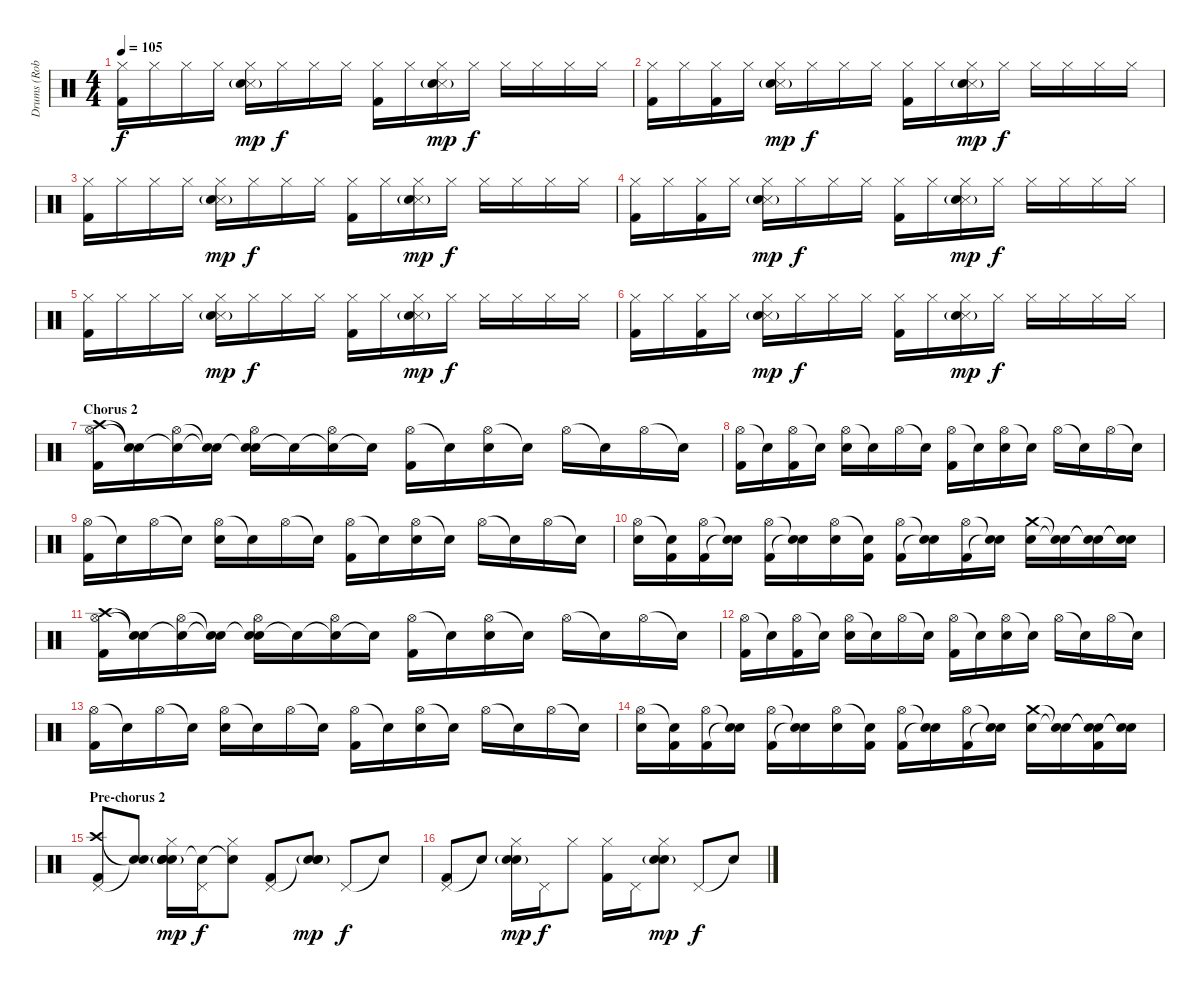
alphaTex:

\track ("Drums (Rob Bourdon)" "Drums (Rob") {instrument percussion}
\staff {score}
\articulation defaults
\ts (4 4)
\tempo 105
\clef neutral
\ks c
("Hi-Hat (closed)" "Kick (hit) 2").16{dy f} "Hi-Hat (closed)".16 "Hi-Hat (closed)".16 "Hi-Hat (closed)".16 ("Hi-Hat (closed)" "Snare (side stick) 3" "Electric Snare (hit)"{g}).16{dy mp} "Hi-Hat (closed)".16{dy f} "Hi-Hat (closed)".16 "Hi-Hat (closed)".16 ("Hi-Hat (closed)" "Kick (hit) 2").16 "Hi-Hat (closed)".16 ("Hi-Hat (closed)" "Snare (side stick) 3" "Electric Snare (hit)"{g}).16{dy mp} "Hi-Hat (closed)".16{dy f} "Hi-Hat (closed)".16 "Hi-Hat (closed)".16 "Hi-Hat (closed)".16 "Hi-Hat (closed)".16 |
("Hi-Hat (closed)" "Kick (hit) 2").16 "Hi-Hat (closed)".16 ("Hi-Hat (closed)" "Kick (hit) 2").16 "Hi-Hat (closed)".16 ("Hi-Hat (closed)" "Snare (side stick) 3" "Electric Snare (hit)"{g}).16{dy mp} "Hi-Hat (closed)".16{dy f} "Hi-Hat (closed)".16 "Hi-Hat (closed)".16 ("Hi-Hat (closed)" "Kick (hit) 2").16 "Hi-Hat (closed)".16 ("Hi-Hat (closed)" "Snare (side stick) 3" "Electric Snare (hit)"{g}).16{dy mp} "Hi-Hat (closed)".16{dy f} "Hi-Hat (closed)".16 "Hi-Hat (closed)".16 "Hi-Hat (closed)".16 "Hi-Hat (closed)".16 |
("Hi-Hat (closed)" "Kick (hit) 2").16 "Hi-Hat (closed)".16 "Hi-Hat (closed)".16 "Hi-Hat (closed)".16 ("Hi-Hat (closed)" "Snare (side stick) 3" "Electric Snare (hit)"{g}).16{dy mp} "Hi-Hat (closed)".16{dy f} "Hi-Hat (closed)".16 "Hi-Hat (closed)".16 ("Hi-Hat (closed)" "Kick (hit) 2").16 "Hi-Hat (closed)".16 ("Hi-Hat (closed)" "Snare (side stick) 3" "Electric Snare (hit)"{g}).16{dy mp} "Hi-Hat (closed)".16{dy f} "Hi-Hat (closed)".16 "Hi-Hat (closed)".16 "Hi-Hat (closed)".16 "Hi-Hat (closed)".16 |
("Hi-Hat (closed)" "Kick (hit) 2").16 "Hi-Hat (closed)".16 ("Hi-Hat (closed)" "Kick (hit) 2").16 "Hi-Hat (closed)".16 ("Hi-Hat (closed)" "Snare (side stick) 3" "Electric Snare (hit)"{g}).16{dy mp} "Hi-Hat (closed)".16{dy f} "Hi-Hat (closed)".16 "Hi-Hat (closed)".16 ("Hi-Hat (closed)" "Kick (hit) 2").16 "Hi-Hat (closed)".16 ("Hi-Hat (closed)" "Snare (side stick) 3" "Electric Snare (hit)"{g}).16{dy mp} "Hi-Hat (closed)".16{dy f} "Hi-Hat (closed)".16 "Hi-Hat (closed)".16 "Hi-Hat (closed)".16 "Hi-Hat (closed)".16 |
("Hi-Hat (closed)" "Kick (hit) 2").16 "Hi-Hat (closed)".16 "Hi-Hat (closed)".16 "Hi-Hat (closed)".16 ("Hi-Hat (closed)" "Snare (side stick) 3" "Electric Snare (hit)"{g}).16{dy mp} "Hi-Hat (closed)".16{dy f} "Hi-Hat (closed)".16 "Hi-Hat (closed)".16 ("Hi-Hat (closed)" "Kick (hit) 2").16 "Hi-Hat (closed)".16 ("Hi-Hat (closed)" "Snare (side stick) 3" "Electric Snare (hit)"{g}).16{dy mp} "Hi-Hat (closed)".16{dy f} "Hi-Hat (closed)".16 "Hi-Hat (closed)".16 "Hi-Hat (closed)".16 "Hi-Hat (closed)".16 |
("Hi-Hat (closed)" "Kick (hit) 2").16 "Hi-Hat (closed)".16 ("Hi-Hat (closed)" "Kick (hit) 2").16 "Hi-Hat (closed)".16 ("Hi-Hat (closed)" "Snare (side stick) 3" "Electric Snare (hit)"{g}).16{dy mp} "Hi-Hat (closed)".16{dy f} "Hi-Hat (closed)".16 "Hi-Hat (closed)".16 ("Hi-Hat (closed)" "Kick (hit) 2").16 "Hi-Hat (closed)".16 ("Hi-Hat (closed)" "Snare (side stick) 3" "Electric Snare (hit)"{g}).16{dy mp} "Hi-Hat (closed)".16{dy f} "Hi-Hat (closed)".16 "Hi-Hat (closed)".16 "Hi-Hat (closed)".16 "Hi-Hat (closed)".16 |
\section ("" "Chorus 2")
("Crash high (hit)" "Hi-Hat (open)" "Kick (hit) 2").16 ("Snare (hit)"{t} "Snare (hit)"{t}).16 ("Snare (hit)"{t} "Hi-Hat (open)").16 ("Snare (hit)"{t} "Snare (hit)"{t}).16 ("Snare (hit)"{t} "Hi-Hat (open)" "Electric Snare (hit)").16 "Snare (hit)"{t}.16 ("Snare (hit)"{t} "Hi-Hat (open)").16 "Snare (hit)"{t}.16 ("Hi-Hat (open)" "Kick (hit) 2").16 "Snare (hit)"{t}.16 ("Hi-Hat (open)" "Electric Snare (hit)").16 "Snare (hit)"{t}.16 "Hi-Hat (open)".16 "Snare (hit)"{t}.16 "Hi-Hat (open)".16 "Snare (hit)"{t}.16 |
("Hi-Hat (open)" "Kick (hit) 2").16 "Snare (hit)"{t}.16 ("Hi-Hat (open)" "Kick (hit) 2").16 "Snare (hit)"{t}.16 ("Hi-Hat (open)" "Electric Snare (hit)").16 "Snare (hit)"{t}.16 "Hi-Hat (open)".16 "Snare (hit)"{t}.16 ("Hi-Hat (open)" "Kick (hit) 2").16 "Snare (hit)"{t}.16 ("Hi-Hat (open)" "Electric Snare (hit)").16 "Snare (hit)"{t}.16 "Hi-Hat (open)".16 "Snare (hit)"{t}.16 "Hi-Hat (open)".16 "Snare (hit)"{t}.16 |
("Hi-Hat (open)" "Kick (hit) 2").16 "Snare (hit)"{t}.16 "Hi-Hat (open)".16 "Snare (hit)"{t}.16 ("Hi-Hat (open)" "Electric Snare (hit)").16 "Snare (hit)"{t}.16 "Hi-Hat (open)".16 "Snare (hit)"{t}.16 ("Hi-Hat (open)" "Kick (hit) 2").16 "Snare (hit)"{t}.16 ("Hi-Hat (open)" "Electric Snare (hit)").16 "Snare (hit)"{t}.16 "Hi-Hat (open)".16 "Snare (hit)"{t}.16 "Hi-Hat (open)".16 "Snare (hit)"{t}.16 |
("Hi-Hat (open)" "Electric Snare (hit)").16 ("Snare (hit)"{t} "Kick (hit) 2").16 ("Hi-Hat (open)" "Kick (hit) 2").16 ("Snare (hit)"{t} "Snare (hit)"{t}).16 ("Hi-Hat (open)" "Kick (hit) 2").16 ("Snare (hit)"{t} "Snare (hit)"{t}).16 ("Hi-Hat (open)" "Electric Snare (hit)").16 ("Snare (hit)"{t} "Kick (hit) 2").16 ("Hi-Hat (open)" "Kick (hit) 2").16 ("Snare (hit)"{t} "Snare (hit)"{t}).16 ("Hi-Hat (open)" "Kick (hit) 2").16 ("Snare (hit)"{t} "Snare (hit)"{t}).16 ("Crash medium (hit)" "Electric Snare (hit)").16 ("Snare (hit)"{t} "Snare (hit)"{t}).16 ("Snare (hit)"{t} "Snare (hit)"{t}).16 ("Snare (hit)"{t} "Snare (hit)"{t}).16 |
("Crash high (hit)" "Hi-Hat (open)" "Kick (hit) 2").16 ("Snare (hit)"{t} "Snare (hit)"{t}).16 ("Snare (hit)"{t} "Hi-Hat (open)").16 ("Snare (hit)"{t} "Snare (hit)"{t}).16 ("Snare (hit)"{t} "Hi-Hat (open)" "Electric Snare (hit)").16 "Snare (hit)"{t}.16 ("Snare (hit)"{t} "Hi-Hat (open)").16 "Snare (hit)"{t}.16 ("Hi-Hat (open)" "Kick (hit) 2").16 "Snare (hit)"{t}.16 ("Hi-Hat (open)" "Electric Snare (hit)").16 "Snare (hit)"{t}.16 "Hi-Hat (open)".16 "Snare (hit)"{t}.16 "Hi-Hat (open)".16 "Snare (hit)"{t}.16 |
("Hi-Hat (open)" "Kick (hit) 2").16 "Snare (hit)"{t}.16 ("Hi-Hat (open)" "Kick (hit) 2").16 "Snare (hit)"{t}.16 ("Hi-Hat (open)" "Electric Snare (hit)").16 "Snare (hit)"{t}.16 "Hi-Hat (open)".16 "Snare (hit)"{t}.16 ("Hi-Hat (open)" "Kick (hit) 2").16 "Snare (hit)"{t}.16 ("Hi-Hat (open)" "Electric Snare (hit)").16 "Snare (hit)"{t}.16 "Hi-Hat (open)".16 "Snare (hit)"{t}.16 "Hi-Hat (open)".16 "Snare (hit)"{t}.16 |
("Hi-Hat (open)" "Kick (hit) 2").16 "Snare (hit)"{t}.16 "Hi-Hat (open)".16 "Snare (hit)"{t}.16 ("Hi-Hat (open)" "Electric Snare (hit)").16 "Snare (hit)"{t}.16 "Hi-Hat (open)".16 "Snare (hit)"{t}.16 ("Hi-Hat (open)" "Kick (hit) 2").16 "Snare (hit)"{t}.16 ("Hi-Hat (open)" "Electric Snare (hit)").16 "Snare (hit)"{t}.16 "Hi-Hat (open)".16 "Snare (hit)"{t}.16 "Hi-Hat (open)".16 "Snare (hit)"{t}.16 |
("Hi-Hat (open)" "Electric Snare (hit)").16 ("Snare (hit)"{t} "Kick (hit) 2").16 ("Hi-Hat (open)" "Kick (hit) 2").16 ("Snare (hit)"{t} "Snare (hit)"{t}).16 ("Hi-Hat (open)" "Kick (hit) 2").16 ("Snare (hit)"{t} "Snare (hit)"{t}).16 ("Hi-Hat (open)" "Electric Snare (hit)").16 ("Snare (hit)"{t} "Kick (hit) 2").16 ("Hi-Hat (open)" "Kick (hit) 2").16 ("Snare (hit)"{t} "Snare (hit)"{t}).16 ("Hi-Hat (open)" "Kick (hit) 2").16 ("Snare (hit)"{t} "Snare (hit)"{t}).16 ("Crash medium (hit)" "Electric Snare (hit)").16 ("Snare (hit)"{t} "Snare (hit)"{t}).16 ("Snare (hit)"{t} "Snare (hit)"{t} "Kick (hit) 2").16 ("Snare (hit)"{t} "Snare (hit)"{t}).16 |
\section ("" "Pre-chorus 2")
("Crash high (hit)" "Pedal Hi-Hat (hit)" "Kick (hit) 2").8 ("Snare (hit)"{t} "Snare (hit)"{t}).8 ("Snare (hit)"{t} "Hi-Hat (closed)" "Hand Clap (hit)"{g} "Electric Snare (hit)").16{dy mp} ("Snare (hit)"{t} "Pedal Hi-Hat (hit)").16{dy f} ("Snare (hit)"{t} "Hi-Hat (closed)").8 ("Pedal Hi-Hat (hit)" "Kick (hit) 2").8 ("Snare (hit)"{t} "Hand Clap (hit)"{g} "Electric Snare (hit)").8{dy mp} "Pedal Hi-Hat (hit)".8{dy f} "Snare (hit)"{t}.8 |
("Pedal Hi-Hat (hit)" "Kick (hit) 2").8 "Snare (hit)"{t}.8 ("Hi-Hat (closed)" "Hand Clap (hit)"{g} "Electric Snare (hit)").16{dy mp} "Pedal Hi-Hat (hit)".16{dy f} "Hi-Hat (closed)".8 ("Hi-Hat (closed)" "Kick (hit) 2").16 "Pedal Hi-Hat (hit)".16 ("Hi-Hat (closed)" "Hand Clap (hit)"{g} "Electric Snare (hit)").8{dy mp} "Pedal Hi-Hat (hit)".8{dy f} "Snare (hit)"{t}.8
